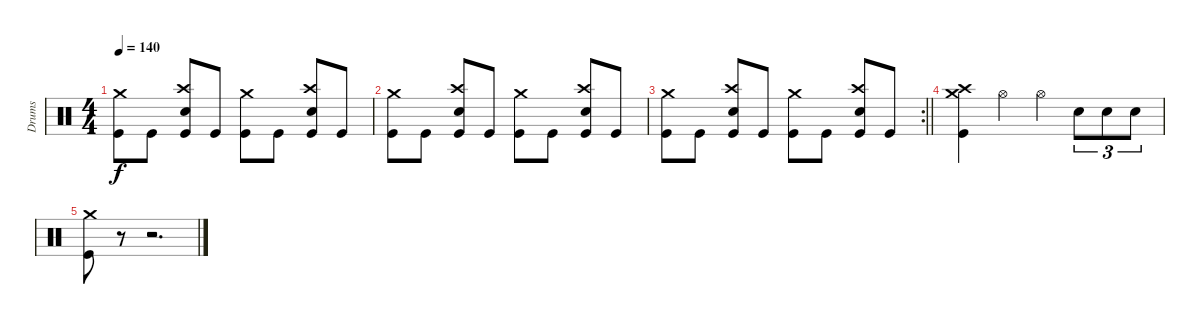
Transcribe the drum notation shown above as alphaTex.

\track ("Drums" "Drums") {instrument percussion}
\staff {score}
\articulation defaults
\ts (4 4)
\tempo 140
\clef neutral
\ks c
("Crash medium (hit)" "Kick (hit)").8{dy f} "Kick (hit)".8 ("Crash high (hit)" "Snare (hit) 2" "Kick (hit)").8 "Kick (hit)".8 ("Crash medium (hit)" "Kick (hit)").8 "Kick (hit)".8 ("Crash high (hit)" "Snare (hit) 2" "Kick (hit)").8 "Kick (hit)".8 |
("Crash medium (hit)" "Kick (hit)").8 "Kick (hit)".8 ("Crash high (hit)" "Snare (hit) 2" "Kick (hit)").8 "Kick (hit)".8 ("Crash medium (hit)" "Kick (hit)").8 "Kick (hit)".8 ("Crash high (hit)" "Snare (hit) 2" "Kick (hit)").8 "Kick (hit)".8 |
\rc 2
\barLineRight lightlight
("Crash medium (hit)" "Kick (hit)").8 "Kick (hit)".8 ("Crash high (hit)" "Snare (hit) 2" "Kick (hit)").8 "Kick (hit)".8 ("Crash medium (hit)" "Kick (hit)").8 "Kick (hit)".8 ("Crash high (hit)" "Snare (hit) 2" "Kick (hit)").8 "Kick (hit)".8 |
("Crash medium (hit)" "Crash high (hit)" "Kick (hit)").4 "Hi-Hat (open)".4 "Hi-Hat (open)".4 "Snare (hit) 2".8{tu (3 2)} "Snare (hit) 2".8{tu (3 2)} "Snare (hit) 2".8{tu (3 2)} |
("Crash medium (hit)" "Kick (hit)").8 r.8{volume 0} r.2{d}
